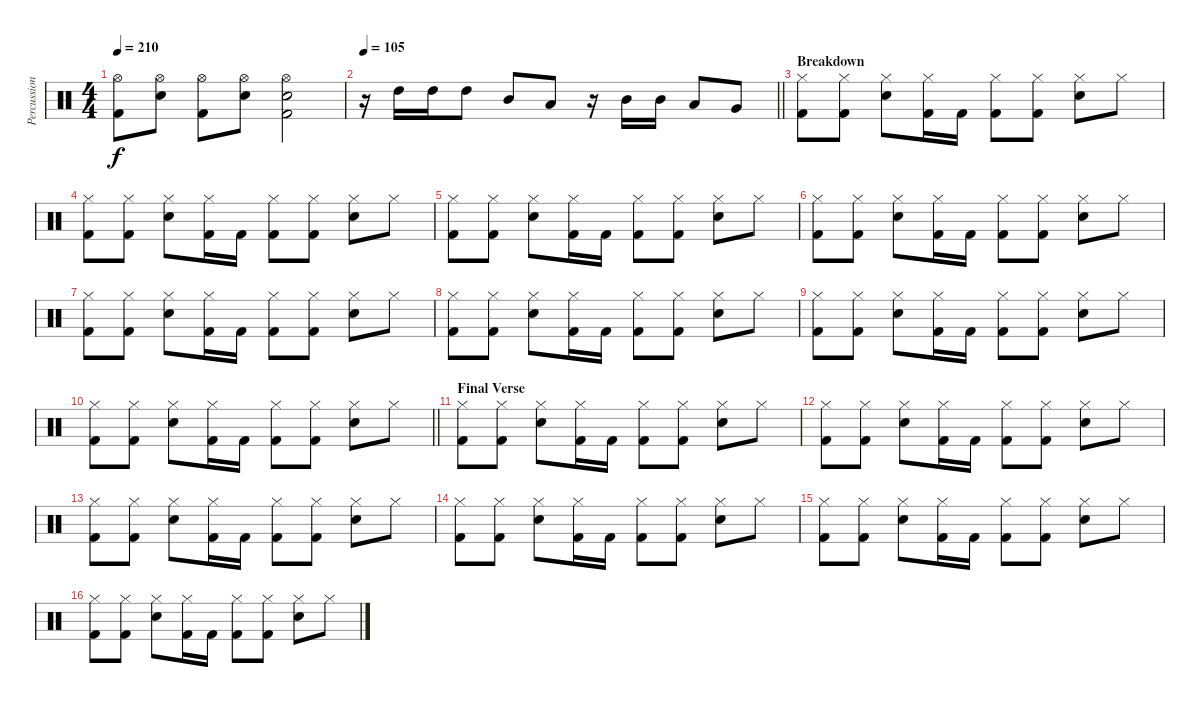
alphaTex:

\track ("Percussion" "Percussion") {instrument percussion}
\staff {score}
\articulation defaults
\ts (4 4)
\tempo 210
\clef neutral
\ks c
("Hi-Hat (open)" "Kick (hit) 2").8{dy f} ("Hi-Hat (open)" "Electric Snare (hit)").8 ("Hi-Hat (open)" "Kick (hit) 2").8 ("Hi-Hat (open)" "Electric Snare (hit)").8 ("Hi-Hat (open)" "Electric Snare (hit)" "Kick (hit) 2").2 |
\tempo 105
\barLineRight lightlight
r.16 "High Tom (hit)".16 "High Tom (hit)".16 "High Tom (hit)".8 "Mid Tom (hit)".8 "Low Tom (hit)".8 r.16 "Mid Tom (hit)".16 "Mid Tom (hit)".16 "Low Tom (hit)".8 "Very Low Tom (hit)".8 |
\section ("" "Breakdown")
("Hi-Hat (closed)" "Kick (hit) 2").8 ("Hi-Hat (closed)" "Kick (hit) 2").8 ("Hi-Hat (closed)" "Electric Snare (hit)").8 ("Hi-Hat (closed)" "Kick (hit) 2").16 "Kick (hit) 2".16 ("Hi-Hat (closed)" "Kick (hit) 2").8 ("Hi-Hat (closed)" "Kick (hit) 2").8 ("Hi-Hat (closed)" "Electric Snare (hit)").8 "Hi-Hat (closed)".8 |
("Hi-Hat (closed)" "Kick (hit) 2").8 ("Hi-Hat (closed)" "Kick (hit) 2").8 ("Hi-Hat (closed)" "Electric Snare (hit)").8 ("Hi-Hat (closed)" "Kick (hit) 2").16 "Kick (hit) 2".16 ("Hi-Hat (closed)" "Kick (hit) 2").8 ("Hi-Hat (closed)" "Kick (hit) 2").8 ("Hi-Hat (closed)" "Electric Snare (hit)").8 "Hi-Hat (closed)".8 |
("Hi-Hat (closed)" "Kick (hit) 2").8 ("Hi-Hat (closed)" "Kick (hit) 2").8 ("Hi-Hat (closed)" "Electric Snare (hit)").8 ("Hi-Hat (closed)" "Kick (hit) 2").16 "Kick (hit) 2".16 ("Hi-Hat (closed)" "Kick (hit) 2").8 ("Hi-Hat (closed)" "Kick (hit) 2").8 ("Hi-Hat (closed)" "Electric Snare (hit)").8 "Hi-Hat (closed)".8 |
("Hi-Hat (closed)" "Kick (hit) 2").8 ("Hi-Hat (closed)" "Kick (hit) 2").8 ("Hi-Hat (closed)" "Electric Snare (hit)").8 ("Hi-Hat (closed)" "Kick (hit) 2").16 "Kick (hit) 2".16 ("Hi-Hat (closed)" "Kick (hit) 2").8 ("Hi-Hat (closed)" "Kick (hit) 2").8 ("Hi-Hat (closed)" "Electric Snare (hit)").8 "Hi-Hat (closed)".8 |
("Hi-Hat (closed)" "Kick (hit) 2").8 ("Hi-Hat (closed)" "Kick (hit) 2").8 ("Hi-Hat (closed)" "Electric Snare (hit)").8 ("Hi-Hat (closed)" "Kick (hit) 2").16 "Kick (hit) 2".16 ("Hi-Hat (closed)" "Kick (hit) 2").8 ("Hi-Hat (closed)" "Kick (hit) 2").8 ("Hi-Hat (closed)" "Electric Snare (hit)").8 "Hi-Hat (closed)".8 |
("Hi-Hat (closed)" "Kick (hit) 2").8 ("Hi-Hat (closed)" "Kick (hit) 2").8 ("Hi-Hat (closed)" "Electric Snare (hit)").8 ("Hi-Hat (closed)" "Kick (hit) 2").16 "Kick (hit) 2".16 ("Hi-Hat (closed)" "Kick (hit) 2").8 ("Hi-Hat (closed)" "Kick (hit) 2").8 ("Hi-Hat (closed)" "Electric Snare (hit)").8 "Hi-Hat (closed)".8 |
("Hi-Hat (closed)" "Kick (hit) 2").8 ("Hi-Hat (closed)" "Kick (hit) 2").8 ("Hi-Hat (closed)" "Electric Snare (hit)").8 ("Hi-Hat (closed)" "Kick (hit) 2").16 "Kick (hit) 2".16 ("Hi-Hat (closed)" "Kick (hit) 2").8 ("Hi-Hat (closed)" "Kick (hit) 2").8 ("Hi-Hat (closed)" "Electric Snare (hit)").8 "Hi-Hat (closed)".8 |
\barLineRight lightlight
("Hi-Hat (closed)" "Kick (hit) 2").8 ("Hi-Hat (closed)" "Kick (hit) 2").8 ("Hi-Hat (closed)" "Electric Snare (hit)").8 ("Hi-Hat (closed)" "Kick (hit) 2").16 "Kick (hit) 2".16 ("Hi-Hat (closed)" "Kick (hit) 2").8 ("Hi-Hat (closed)" "Kick (hit) 2").8 ("Hi-Hat (closed)" "Electric Snare (hit)").8 "Hi-Hat (closed)".8 |
\section ("" "Final Verse")
("Hi-Hat (closed)" "Kick (hit) 2").8 ("Hi-Hat (closed)" "Kick (hit) 2").8 ("Hi-Hat (closed)" "Electric Snare (hit)").8 ("Hi-Hat (closed)" "Kick (hit) 2").16 "Kick (hit) 2".16 ("Hi-Hat (closed)" "Kick (hit) 2").8 ("Hi-Hat (closed)" "Kick (hit) 2").8 ("Hi-Hat (closed)" "Electric Snare (hit)").8 "Hi-Hat (closed)".8 |
("Hi-Hat (closed)" "Kick (hit) 2").8 ("Hi-Hat (closed)" "Kick (hit) 2").8 ("Hi-Hat (closed)" "Electric Snare (hit)").8 ("Hi-Hat (closed)" "Kick (hit) 2").16 "Kick (hit) 2".16 ("Hi-Hat (closed)" "Kick (hit) 2").8 ("Hi-Hat (closed)" "Kick (hit) 2").8 ("Hi-Hat (closed)" "Electric Snare (hit)").8 "Hi-Hat (closed)".8 |
("Hi-Hat (closed)" "Kick (hit) 2").8 ("Hi-Hat (closed)" "Kick (hit) 2").8 ("Hi-Hat (closed)" "Electric Snare (hit)").8 ("Hi-Hat (closed)" "Kick (hit) 2").16 "Kick (hit) 2".16 ("Hi-Hat (closed)" "Kick (hit) 2").8 ("Hi-Hat (closed)" "Kick (hit) 2").8 ("Hi-Hat (closed)" "Electric Snare (hit)").8 "Hi-Hat (closed)".8 |
("Hi-Hat (closed)" "Kick (hit) 2").8 ("Hi-Hat (closed)" "Kick (hit) 2").8 ("Hi-Hat (closed)" "Electric Snare (hit)").8 ("Hi-Hat (closed)" "Kick (hit) 2").16 "Kick (hit) 2".16 ("Hi-Hat (closed)" "Kick (hit) 2").8 ("Hi-Hat (closed)" "Kick (hit) 2").8 ("Hi-Hat (closed)" "Electric Snare (hit)").8 "Hi-Hat (closed)".8 |
("Hi-Hat (closed)" "Kick (hit) 2").8 ("Hi-Hat (closed)" "Kick (hit) 2").8 ("Hi-Hat (closed)" "Electric Snare (hit)").8 ("Hi-Hat (closed)" "Kick (hit) 2").16 "Kick (hit) 2".16 ("Hi-Hat (closed)" "Kick (hit) 2").8 ("Hi-Hat (closed)" "Kick (hit) 2").8 ("Hi-Hat (closed)" "Electric Snare (hit)").8 "Hi-Hat (closed)".8 |
("Hi-Hat (closed)" "Kick (hit) 2").8 ("Hi-Hat (closed)" "Kick (hit) 2").8 ("Hi-Hat (closed)" "Electric Snare (hit)").8 ("Hi-Hat (closed)" "Kick (hit) 2").16 "Kick (hit) 2".16 ("Hi-Hat (closed)" "Kick (hit) 2").8 ("Hi-Hat (closed)" "Kick (hit) 2").8 ("Hi-Hat (closed)" "Electric Snare (hit)").8 "Hi-Hat (closed)".8
